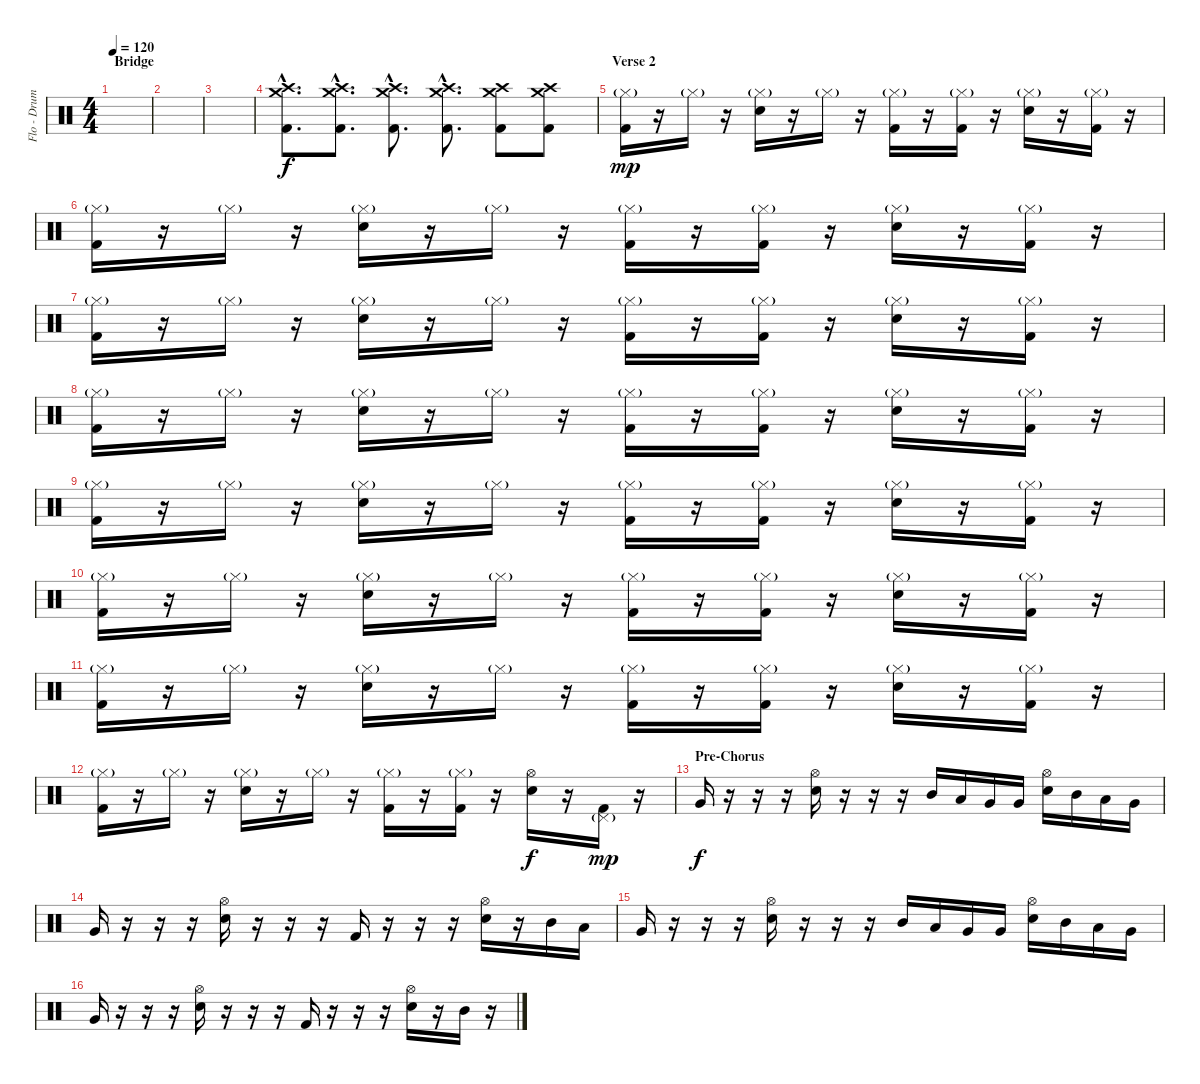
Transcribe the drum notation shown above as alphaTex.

\track ("Flo - Drums" "Flo - Drum") {instrument percussion}
\staff {score}
\articulation defaults
\ts (4 4)
\section ("" "Bridge")
\tempo 120
\clef neutral
\ks c
|
|
|
("Crash medium (hit)"{hac} "Crash high (hit)"{hac} "Kick (hit) 2"{hac}).8{d dy f} ("Crash medium (hit)"{hac} "Crash high (hit)"{hac} "Kick (hit) 2"{hac}).8{d} ("Crash medium (hit)"{hac} "Crash high (hit)"{hac} "Kick (hit) 2"{hac}).8{d} ("Crash medium (hit)"{hac} "Crash high (hit)"{hac} "Kick (hit) 2"{hac}).8{d} ("Crash medium (hit)" "Crash high (hit)" "Kick (hit) 2").8 ("Crash medium (hit)" "Crash high (hit)" "Kick (hit) 2").8 |
\section ("" "Verse 2")
("Hi-Hat (closed)"{g} "Kick (hit) 2").16{dy mp} r.16 "Hi-Hat (closed)"{g}.16 r.16 ("Hi-Hat (closed)"{g} "Electric Snare (hit)").16 r.16 "Hi-Hat (closed)"{g}.16 r.16 ("Hi-Hat (closed)"{g} "Kick (hit) 2").16 r.16 ("Hi-Hat (closed)"{g} "Kick (hit) 2").16 r.16 ("Hi-Hat (closed)"{g} "Electric Snare (hit)").16 r.16 ("Hi-Hat (closed)"{g} "Kick (hit) 2").16 r.16 |
("Hi-Hat (closed)"{g} "Kick (hit) 2").16 r.16 "Hi-Hat (closed)"{g}.16 r.16 ("Hi-Hat (closed)"{g} "Electric Snare (hit)").16 r.16 "Hi-Hat (closed)"{g}.16 r.16 ("Hi-Hat (closed)"{g} "Kick (hit) 2").16 r.16 ("Hi-Hat (closed)"{g} "Kick (hit) 2").16 r.16 ("Hi-Hat (closed)"{g} "Electric Snare (hit)").16 r.16 ("Hi-Hat (closed)"{g} "Kick (hit) 2").16 r.16 |
("Hi-Hat (closed)"{g} "Kick (hit) 2").16 r.16 "Hi-Hat (closed)"{g}.16 r.16 ("Hi-Hat (closed)"{g} "Electric Snare (hit)").16 r.16 "Hi-Hat (closed)"{g}.16 r.16 ("Hi-Hat (closed)"{g} "Kick (hit) 2").16 r.16 ("Hi-Hat (closed)"{g} "Kick (hit) 2").16 r.16 ("Hi-Hat (closed)"{g} "Electric Snare (hit)").16 r.16 ("Hi-Hat (closed)"{g} "Kick (hit) 2").16 r.16 |
("Hi-Hat (closed)"{g} "Kick (hit) 2").16 r.16 "Hi-Hat (closed)"{g}.16 r.16 ("Hi-Hat (closed)"{g} "Electric Snare (hit)").16 r.16 "Hi-Hat (closed)"{g}.16 r.16 ("Hi-Hat (closed)"{g} "Kick (hit) 2").16 r.16 ("Hi-Hat (closed)"{g} "Kick (hit) 2").16 r.16 ("Hi-Hat (closed)"{g} "Electric Snare (hit)").16 r.16 ("Hi-Hat (closed)"{g} "Kick (hit) 2").16 r.16 |
("Hi-Hat (closed)"{g} "Kick (hit) 2").16 r.16 "Hi-Hat (closed)"{g}.16 r.16 ("Hi-Hat (closed)"{g} "Electric Snare (hit)").16 r.16 "Hi-Hat (closed)"{g}.16 r.16 ("Hi-Hat (closed)"{g} "Kick (hit) 2").16 r.16 ("Hi-Hat (closed)"{g} "Kick (hit) 2").16 r.16 ("Hi-Hat (closed)"{g} "Electric Snare (hit)").16 r.16 ("Hi-Hat (closed)"{g} "Kick (hit) 2").16 r.16 |
("Hi-Hat (closed)"{g} "Kick (hit) 2").16 r.16 "Hi-Hat (closed)"{g}.16 r.16 ("Hi-Hat (closed)"{g} "Electric Snare (hit)").16 r.16 "Hi-Hat (closed)"{g}.16 r.16 ("Hi-Hat (closed)"{g} "Kick (hit) 2").16 r.16 ("Hi-Hat (closed)"{g} "Kick (hit) 2").16 r.16 ("Hi-Hat (closed)"{g} "Electric Snare (hit)").16 r.16 ("Hi-Hat (closed)"{g} "Kick (hit) 2").16 r.16 |
("Hi-Hat (closed)"{g} "Kick (hit) 2").16 r.16 "Hi-Hat (closed)"{g}.16 r.16 ("Hi-Hat (closed)"{g} "Electric Snare (hit)").16 r.16 "Hi-Hat (closed)"{g}.16 r.16 ("Hi-Hat (closed)"{g} "Kick (hit) 2").16 r.16 ("Hi-Hat (closed)"{g} "Kick (hit) 2").16 r.16 ("Hi-Hat (closed)"{g} "Electric Snare (hit)").16 r.16 ("Hi-Hat (closed)"{g} "Kick (hit) 2").16 r.16 |
("Hi-Hat (closed)"{g} "Kick (hit) 2").16 r.16 "Hi-Hat (closed)"{g}.16 r.16 ("Hi-Hat (closed)"{g} "Electric Snare (hit)").16 r.16 "Hi-Hat (closed)"{g}.16 r.16 ("Hi-Hat (closed)"{g} "Kick (hit) 2").16 r.16 ("Hi-Hat (closed)"{g} "Kick (hit) 2").16 r.16 ("Hi-Hat (open)" "Electric Snare (hit)").16{dy f} r.16 ("Pedal Hi-Hat (hit)"{g} "Kick (hit) 2").16{dy mp} r.16 |
\section ("" "Pre-Chorus")
"Very Low Tom (hit)".16{dy f} r.16 r.16 r.16 ("Hi-Hat (open)" "Electric Snare (hit)").16 r.16 r.16 r.16 "Mid Tom (hit)".16 "Low Tom (hit)".16 "Very Low Tom (hit)".16 "Very Low Tom (hit)".16 ("Hi-Hat (open)" "Electric Snare (hit)").16 "Mid Tom (hit)".16 "Low Tom (hit)".16 "Very Low Tom (hit)".16 |
"Very Low Tom (hit)".16 r.16 r.16 r.16 ("Hi-Hat (open)" "Electric Snare (hit)").16 r.16 r.16 r.16 "Kick (hit) 2".16 r.16 r.16 r.16 ("Hi-Hat (open)" "Electric Snare (hit)").16 r.16 "Mid Tom (hit)".16 "Low Tom (hit)".16 |
"Very Low Tom (hit)".16 r.16 r.16 r.16 ("Hi-Hat (open)" "Electric Snare (hit)").16 r.16 r.16 r.16 "Mid Tom (hit)".16 "Low Tom (hit)".16 "Very Low Tom (hit)".16 "Very Low Tom (hit)".16 ("Hi-Hat (open)" "Electric Snare (hit)").16 "Mid Tom (hit)".16 "Low Tom (hit)".16 "Very Low Tom (hit)".16 |
"Very Low Tom (hit)".16 r.16 r.16 r.16 ("Hi-Hat (open)" "Electric Snare (hit)").16 r.16 r.16 r.16 "Kick (hit) 2".16 r.16 r.16 r.16 ("Hi-Hat (open)" "Electric Snare (hit)").16 r.16 "Mid Tom (hit)".16 r.16
